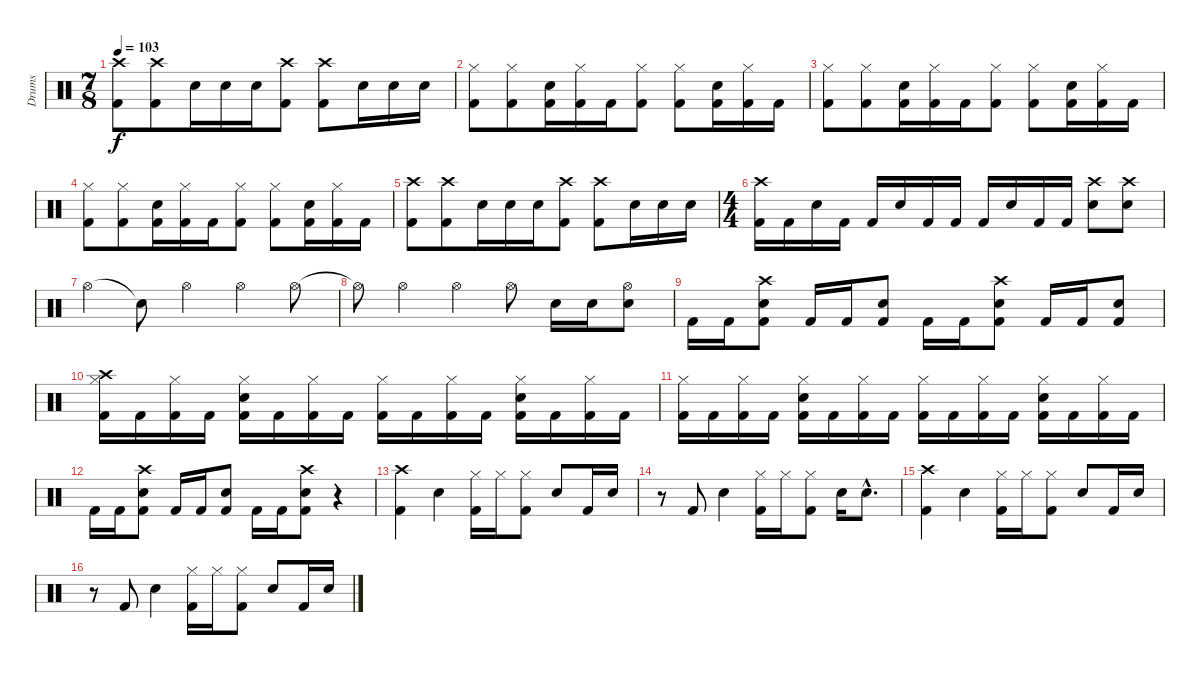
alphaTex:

\track ("Drums" "Drums") {instrument percussion}
\staff {score}
\articulation defaults
\ts (7 8)
\tempo 103
\clef neutral
\ks c
("Crash high (hit)" "Kick (hit) 2").8{dy f} ("Crash high (hit)" "Kick (hit) 2").8 "Electric Snare (hit)".16 "Electric Snare (hit)".16 "Electric Snare (hit)".16 ("Crash high (hit)" "Kick (hit) 2").8 ("Crash high (hit)" "Kick (hit) 2").8 "Electric Snare (hit)".16 "Electric Snare (hit)".16 "Electric Snare (hit)".16 |
("Hi-Hat (closed)" "Kick (hit) 2").8 ("Hi-Hat (closed)" "Kick (hit) 2").8 ("Electric Snare (hit)" "Kick (hit) 2").16 ("Hi-Hat (closed)" "Kick (hit) 2").16 "Kick (hit) 2".16 ("Hi-Hat (closed)" "Kick (hit) 2").8 ("Hi-Hat (closed)" "Kick (hit) 2").8 ("Electric Snare (hit)" "Kick (hit) 2").16 ("Hi-Hat (closed)" "Kick (hit) 2").16 "Kick (hit) 2".16 |
("Hi-Hat (closed)" "Kick (hit) 2").8 ("Hi-Hat (closed)" "Kick (hit) 2").8 ("Electric Snare (hit)" "Kick (hit) 2").16 ("Hi-Hat (closed)" "Kick (hit) 2").16 "Kick (hit) 2".16 ("Hi-Hat (closed)" "Kick (hit) 2").8 ("Hi-Hat (closed)" "Kick (hit) 2").8 ("Electric Snare (hit)" "Kick (hit) 2").16 ("Hi-Hat (closed)" "Kick (hit) 2").16 "Kick (hit) 2".16 |
("Hi-Hat (closed)" "Kick (hit) 2").8 ("Hi-Hat (closed)" "Kick (hit) 2").8 ("Electric Snare (hit)" "Kick (hit) 2").16 ("Hi-Hat (closed)" "Kick (hit) 2").16 "Kick (hit) 2".16 ("Hi-Hat (closed)" "Kick (hit) 2").8 ("Hi-Hat (closed)" "Kick (hit) 2").8 ("Electric Snare (hit)" "Kick (hit) 2").16 ("Hi-Hat (closed)" "Kick (hit) 2").16 "Kick (hit) 2".16 |
("Crash high (hit)" "Kick (hit) 2").8 ("Crash high (hit)" "Kick (hit) 2").8 "Electric Snare (hit)".16 "Electric Snare (hit)".16 "Electric Snare (hit)".16 ("Crash high (hit)" "Kick (hit) 2").8 ("Crash high (hit)" "Kick (hit) 2").8 "Electric Snare (hit)".16 "Electric Snare (hit)".16 "Electric Snare (hit)".16 |
\ts (4 4)
("Crash high (hit)" "Kick (hit) 2").16 "Kick (hit) 2".16 "Electric Snare (hit)".16 "Kick (hit) 2".16 "Kick (hit) 2".16 "Electric Snare (hit)".16 "Kick (hit) 2".16 "Kick (hit) 2".16 "Kick (hit) 2".16 "Electric Snare (hit)".16 "Kick (hit) 2".16 "Kick (hit) 2".16 ("Crash high (hit)" "Electric Snare (hit)").8 ("Crash high (hit)" "Electric Snare (hit)").8 |
"Hi-Hat (open)".4 "Snare (hit)"{t}.8 "Hi-Hat (open)".4 "Hi-Hat (open)".4 "Hi-Hat (open)".8 |
"Hi-Hat (open)"{t}.8 "Hi-Hat (open)".4 "Hi-Hat (open)".4 "Hi-Hat (open)".8 "Electric Snare (hit)".16 "Electric Snare (hit)".16 ("Hi-Hat (open)" "Electric Snare (hit)").8 |
"Kick (hit) 2".16 "Kick (hit) 2".16 ("Crash high (hit)" "Electric Snare (hit)" "Kick (hit) 2").8 "Kick (hit) 2".16 "Kick (hit) 2".16 ("Electric Snare (hit)" "Kick (hit) 2").8 "Kick (hit) 2".16 "Kick (hit) 2".16 ("Crash high (hit)" "Electric Snare (hit)" "Kick (hit) 2").8 "Kick (hit) 2".16 "Kick (hit) 2".16 ("Electric Snare (hit)" "Kick (hit) 2").8 |
("Hi-Hat (closed)" "Crash high (hit)" "Kick (hit) 2").16 "Kick (hit) 2".16 ("Hi-Hat (closed)" "Kick (hit) 2").16 "Kick (hit) 2".16 ("Hi-Hat (closed)" "Electric Snare (hit)" "Kick (hit) 2").16 "Kick (hit) 2".16 ("Hi-Hat (closed)" "Kick (hit) 2").16 "Kick (hit) 2".16 ("Hi-Hat (closed)" "Kick (hit) 2").16 "Kick (hit) 2".16 ("Hi-Hat (closed)" "Kick (hit) 2").16 "Kick (hit) 2".16 ("Hi-Hat (closed)" "Electric Snare (hit)" "Kick (hit) 2").16 "Kick (hit) 2".16 ("Hi-Hat (closed)" "Kick (hit) 2").16 "Kick (hit) 2".16 |
("Hi-Hat (closed)" "Kick (hit) 2").16 "Kick (hit) 2".16 ("Hi-Hat (closed)" "Kick (hit) 2").16 "Kick (hit) 2".16 ("Hi-Hat (closed)" "Electric Snare (hit)" "Kick (hit) 2").16 "Kick (hit) 2".16 ("Hi-Hat (closed)" "Kick (hit) 2").16 "Kick (hit) 2".16 ("Hi-Hat (closed)" "Kick (hit) 2").16 "Kick (hit) 2".16 ("Hi-Hat (closed)" "Kick (hit) 2").16 "Kick (hit) 2".16 ("Hi-Hat (closed)" "Electric Snare (hit)" "Kick (hit) 2").16 "Kick (hit) 2".16 ("Hi-Hat (closed)" "Kick (hit) 2").16 "Kick (hit) 2".16 |
"Kick (hit) 2".16 "Kick (hit) 2".16 ("Crash high (hit)" "Electric Snare (hit)" "Kick (hit) 2").8 "Kick (hit) 2".16 "Kick (hit) 2".16 ("Electric Snare (hit)" "Kick (hit) 2").8 "Kick (hit) 2".16 "Kick (hit) 2".16 ("Crash high (hit)" "Electric Snare (hit)" "Kick (hit) 2").8 r.4 |
("Crash high (hit)" "Kick (hit) 2").4 "Electric Snare (hit)".4 ("Hi-Hat (closed)" "Kick (hit) 2").16 "Hi-Hat (closed)".16 ("Hi-Hat (closed)" "Kick (hit) 2").8 "Electric Snare (hit)".8 "Kick (hit) 2".16 "Electric Snare (hit)".16 |
r.8 "Kick (hit) 2".8 "Electric Snare (hit)".4 ("Hi-Hat (closed)" "Kick (hit) 2").16 "Hi-Hat (closed)".16 ("Hi-Hat (closed)" "Kick (hit) 2").8 "Electric Snare (hit)".16 "Electric Snare (hit)"{hac}.8{d} |
("Crash high (hit)" "Kick (hit) 2").4 "Electric Snare (hit)".4 ("Hi-Hat (closed)" "Kick (hit) 2").16 "Hi-Hat (closed)".16 ("Hi-Hat (closed)" "Kick (hit) 2").8 "Electric Snare (hit)".8 "Kick (hit) 2".16 "Electric Snare (hit)".16 |
r.8 "Kick (hit) 2".8 "Electric Snare (hit)".4 ("Hi-Hat (closed)" "Kick (hit) 2").16 "Hi-Hat (closed)".16 ("Hi-Hat (closed)" "Kick (hit) 2").8 "Electric Snare (hit)".8 "Kick (hit) 2".16 "Electric Snare (hit)".16
